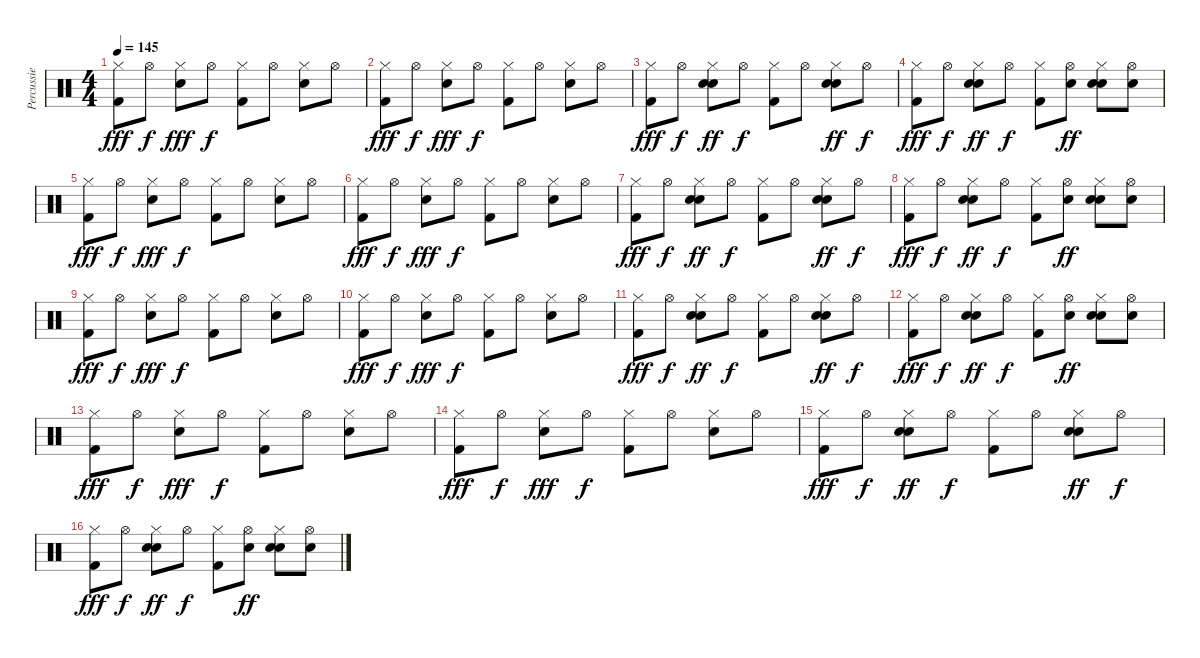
\track ("Percussie" "Percussie") {instrument percussion}
\staff {score}
\articulation defaults
\ts (4 4)
\tempo 145
\clef neutral
\ks c
("Kick (hit) 2" "Hi-Hat (closed)").8{dy fff} "Hi-Hat (open)".8{dy f} ("Electric Snare (hit)" "Hi-Hat (closed)").8{dy fff} "Hi-Hat (open)".8{dy f} ("Kick (hit) 2" "Hi-Hat (closed)").8 "Hi-Hat (open)".8 ("Electric Snare (hit)" "Hi-Hat (closed)").8 "Hi-Hat (open)".8 |
("Kick (hit) 2" "Hi-Hat (closed)").8{dy fff} "Hi-Hat (open)".8{dy f} ("Electric Snare (hit)" "Hi-Hat (closed)").8{dy fff} "Hi-Hat (open)".8{dy f} ("Kick (hit) 2" "Hi-Hat (closed)").8 "Hi-Hat (open)".8 ("Electric Snare (hit)" "Hi-Hat (closed)").8 "Hi-Hat (open)".8 |
("Kick (hit) 2" "Hi-Hat (closed)").8{dy fff} "Hi-Hat (open)".8{dy f} ("Electric Snare (hit)" "Hi-Hat (closed)" "Hand Clap (hit)").8{dy ff} "Hi-Hat (open)".8{dy f} ("Kick (hit) 2" "Hi-Hat (closed)").8 "Hi-Hat (open)".8 ("Electric Snare (hit)" "Hi-Hat (closed)" "Hand Clap (hit)").8{dy ff} "Hi-Hat (open)".8{dy f} |
("Kick (hit) 2" "Hi-Hat (closed)").8{dy fff} "Hi-Hat (open)".8{dy f} ("Electric Snare (hit)" "Hi-Hat (closed)" "Hand Clap (hit)").8{dy ff} "Hi-Hat (open)".8{dy f} ("Kick (hit) 2" "Hi-Hat (closed)").8 ("Hi-Hat (open)" "Hand Clap (hit)").8{dy ff} ("Electric Snare (hit)" "Hi-Hat (closed)" "Hand Clap (hit)").8 ("Hi-Hat (open)" "Hand Clap (hit)").8 |
("Kick (hit) 2" "Hi-Hat (closed)").8{dy fff} "Hi-Hat (open)".8{dy f} ("Electric Snare (hit)" "Hi-Hat (closed)").8{dy fff} "Hi-Hat (open)".8{dy f} ("Kick (hit) 2" "Hi-Hat (closed)").8 "Hi-Hat (open)".8 ("Electric Snare (hit)" "Hi-Hat (closed)").8 "Hi-Hat (open)".8 |
("Kick (hit) 2" "Hi-Hat (closed)").8{dy fff} "Hi-Hat (open)".8{dy f} ("Electric Snare (hit)" "Hi-Hat (closed)").8{dy fff} "Hi-Hat (open)".8{dy f} ("Kick (hit) 2" "Hi-Hat (closed)").8 "Hi-Hat (open)".8 ("Electric Snare (hit)" "Hi-Hat (closed)").8 "Hi-Hat (open)".8 |
("Kick (hit) 2" "Hi-Hat (closed)").8{dy fff} "Hi-Hat (open)".8{dy f} ("Electric Snare (hit)" "Hi-Hat (closed)" "Hand Clap (hit)").8{dy ff} "Hi-Hat (open)".8{dy f} ("Kick (hit) 2" "Hi-Hat (closed)").8 "Hi-Hat (open)".8 ("Electric Snare (hit)" "Hi-Hat (closed)" "Hand Clap (hit)").8{dy ff} "Hi-Hat (open)".8{dy f} |
("Kick (hit) 2" "Hi-Hat (closed)").8{dy fff} "Hi-Hat (open)".8{dy f} ("Electric Snare (hit)" "Hi-Hat (closed)" "Hand Clap (hit)").8{dy ff} "Hi-Hat (open)".8{dy f} ("Kick (hit) 2" "Hi-Hat (closed)").8 ("Hi-Hat (open)" "Hand Clap (hit)").8{dy ff} ("Electric Snare (hit)" "Hi-Hat (closed)" "Hand Clap (hit)").8 ("Hi-Hat (open)" "Hand Clap (hit)").8 |
("Kick (hit) 2" "Hi-Hat (closed)").8{dy fff} "Hi-Hat (open)".8{dy f} ("Electric Snare (hit)" "Hi-Hat (closed)").8{dy fff} "Hi-Hat (open)".8{dy f} ("Kick (hit) 2" "Hi-Hat (closed)").8 "Hi-Hat (open)".8 ("Electric Snare (hit)" "Hi-Hat (closed)").8 "Hi-Hat (open)".8 |
("Kick (hit) 2" "Hi-Hat (closed)").8{dy fff} "Hi-Hat (open)".8{dy f} ("Electric Snare (hit)" "Hi-Hat (closed)").8{dy fff} "Hi-Hat (open)".8{dy f} ("Kick (hit) 2" "Hi-Hat (closed)").8 "Hi-Hat (open)".8 ("Electric Snare (hit)" "Hi-Hat (closed)").8 "Hi-Hat (open)".8 |
("Kick (hit) 2" "Hi-Hat (closed)").8{dy fff} "Hi-Hat (open)".8{dy f} ("Electric Snare (hit)" "Hi-Hat (closed)" "Hand Clap (hit)").8{dy ff} "Hi-Hat (open)".8{dy f} ("Kick (hit) 2" "Hi-Hat (closed)").8 "Hi-Hat (open)".8 ("Electric Snare (hit)" "Hi-Hat (closed)" "Hand Clap (hit)").8{dy ff} "Hi-Hat (open)".8{dy f} |
("Kick (hit) 2" "Hi-Hat (closed)").8{dy fff} "Hi-Hat (open)".8{dy f} ("Electric Snare (hit)" "Hi-Hat (closed)" "Hand Clap (hit)").8{dy ff} "Hi-Hat (open)".8{dy f} ("Kick (hit) 2" "Hi-Hat (closed)").8 ("Hi-Hat (open)" "Hand Clap (hit)").8{dy ff} ("Electric Snare (hit)" "Hi-Hat (closed)" "Hand Clap (hit)").8 ("Hi-Hat (open)" "Hand Clap (hit)").8 |
("Kick (hit) 2" "Hi-Hat (closed)").8{dy fff} "Hi-Hat (open)".8{dy f} ("Electric Snare (hit)" "Hi-Hat (closed)").8{dy fff} "Hi-Hat (open)".8{dy f} ("Kick (hit) 2" "Hi-Hat (closed)").8 "Hi-Hat (open)".8 ("Electric Snare (hit)" "Hi-Hat (closed)").8 "Hi-Hat (open)".8 |
("Kick (hit) 2" "Hi-Hat (closed)").8{dy fff} "Hi-Hat (open)".8{dy f} ("Electric Snare (hit)" "Hi-Hat (closed)").8{dy fff} "Hi-Hat (open)".8{dy f} ("Kick (hit) 2" "Hi-Hat (closed)").8 "Hi-Hat (open)".8 ("Electric Snare (hit)" "Hi-Hat (closed)").8 "Hi-Hat (open)".8 |
("Kick (hit) 2" "Hi-Hat (closed)").8{dy fff} "Hi-Hat (open)".8{dy f} ("Electric Snare (hit)" "Hi-Hat (closed)" "Hand Clap (hit)").8{dy ff} "Hi-Hat (open)".8{dy f} ("Kick (hit) 2" "Hi-Hat (closed)").8 "Hi-Hat (open)".8 ("Electric Snare (hit)" "Hi-Hat (closed)" "Hand Clap (hit)").8{dy ff} "Hi-Hat (open)".8{dy f} |
("Kick (hit) 2" "Hi-Hat (closed)").8{dy fff} "Hi-Hat (open)".8{dy f} ("Electric Snare (hit)" "Hi-Hat (closed)" "Hand Clap (hit)").8{dy ff} "Hi-Hat (open)".8{dy f} ("Kick (hit) 2" "Hi-Hat (closed)").8 ("Hi-Hat (open)" "Hand Clap (hit)").8{dy ff} ("Electric Snare (hit)" "Hi-Hat (closed)" "Hand Clap (hit)").8 ("Hi-Hat (open)" "Hand Clap (hit)").8
